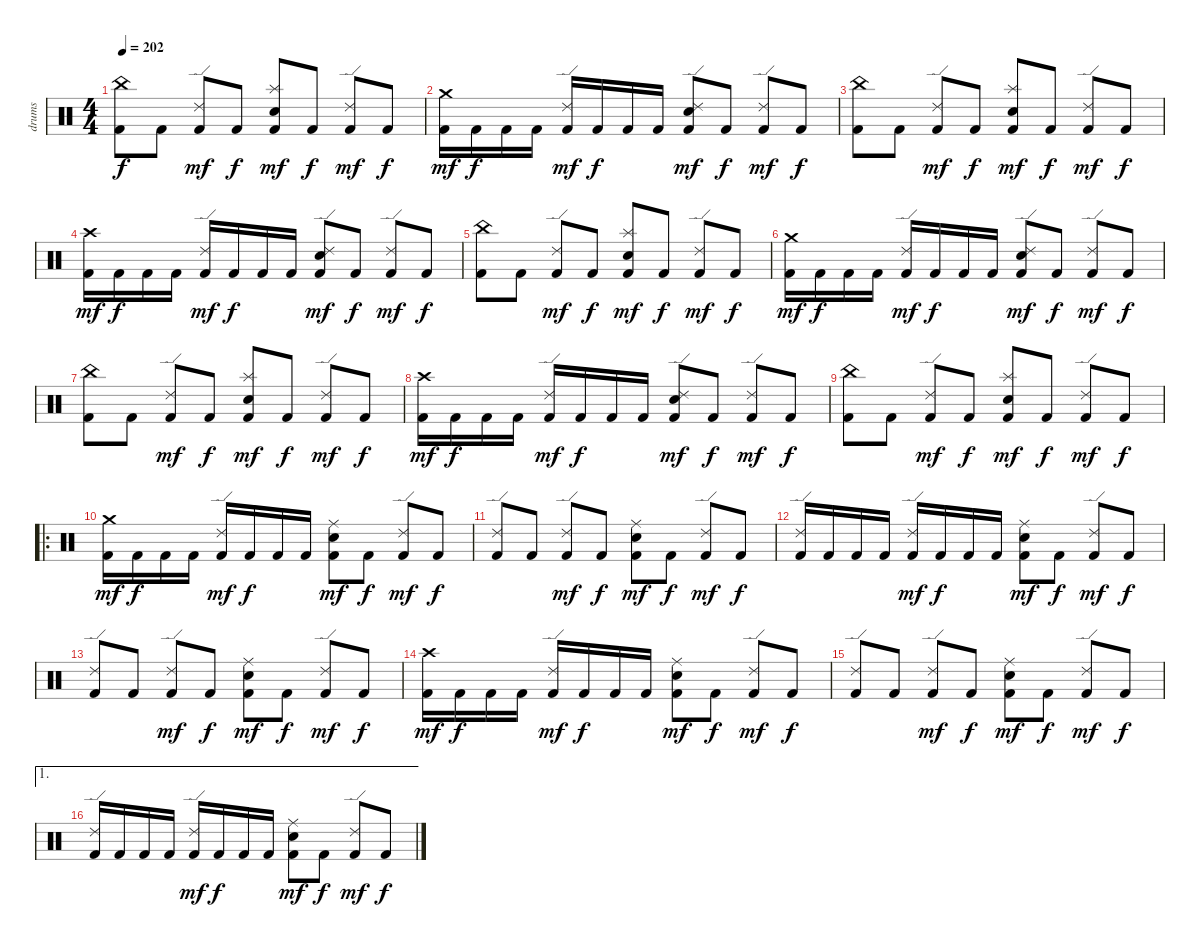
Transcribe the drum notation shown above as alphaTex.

\track ("drums" "drums") {instrument percussion}
\staff {score}
\articulation defaults
\ts (4 4)
\tempo 202
\clef neutral
\ks c
("China (hit)" "Kick (hit) 2").8{dy f} "Kick (hit) 2".8 ("Ride (edge) 2" "Kick (hit) 2").8{dy mf} "Kick (hit) 2".8{dy f} ("Splash (hit)" "Snare (hit) 2" "Kick (hit) 2").8{dy mf} "Kick (hit) 2".8{dy f} ("Ride (edge) 2" "Kick (hit) 2").8{dy mf} "Kick (hit) 2".8{dy f} |
("Crash medium (hit)" "Kick (hit) 2").16{dy mf} "Kick (hit) 2".16{dy f} "Kick (hit) 2".16 "Kick (hit) 2".16 ("Ride (edge) 2" "Kick (hit) 2").16{dy mf} "Kick (hit) 2".16{dy f} "Kick (hit) 2".16 "Kick (hit) 2".16 ("Ride (edge) 2" "Snare (hit) 2" "Kick (hit) 2").8{dy mf} "Kick (hit) 2".8{dy f} ("Ride (edge) 2" "Kick (hit) 2").8{dy mf} "Kick (hit) 2".8{dy f} |
("China (hit)" "Kick (hit) 2").8 "Kick (hit) 2".8 ("Ride (edge) 2" "Kick (hit) 2").8{dy mf} "Kick (hit) 2".8{dy f} ("Splash (hit)" "Snare (hit) 2" "Kick (hit) 2").8{dy mf} "Kick (hit) 2".8{dy f} ("Ride (edge) 2" "Kick (hit) 2").8{dy mf} "Kick (hit) 2".8{dy f} |
("Crash high (hit)" "Kick (hit) 2").16{dy mf} "Kick (hit) 2".16{dy f} "Kick (hit) 2".16 "Kick (hit) 2".16 ("Ride (edge) 2" "Kick (hit) 2").16{dy mf} "Kick (hit) 2".16{dy f} "Kick (hit) 2".16 "Kick (hit) 2".16 ("Ride (edge) 2" "Snare (hit) 2" "Kick (hit) 2").8{dy mf} "Kick (hit) 2".8{dy f} ("Ride (edge) 2" "Kick (hit) 2").8{dy mf} "Kick (hit) 2".8{dy f} |
("China (hit)" "Kick (hit) 2").8 "Kick (hit) 2".8 ("Ride (edge) 2" "Kick (hit) 2").8{dy mf} "Kick (hit) 2".8{dy f} ("Splash (hit)" "Snare (hit) 2" "Kick (hit) 2").8{dy mf} "Kick (hit) 2".8{dy f} ("Ride (edge) 2" "Kick (hit) 2").8{dy mf} "Kick (hit) 2".8{dy f} |
("Crash medium (hit)" "Kick (hit) 2").16{dy mf} "Kick (hit) 2".16{dy f} "Kick (hit) 2".16 "Kick (hit) 2".16 ("Ride (edge) 2" "Kick (hit) 2").16{dy mf} "Kick (hit) 2".16{dy f} "Kick (hit) 2".16 "Kick (hit) 2".16 ("Ride (edge) 2" "Snare (hit) 2" "Kick (hit) 2").8{dy mf} "Kick (hit) 2".8{dy f} ("Ride (edge) 2" "Kick (hit) 2").8{dy mf} "Kick (hit) 2".8{dy f} |
("China (hit)" "Kick (hit) 2").8 "Kick (hit) 2".8 ("Ride (edge) 2" "Kick (hit) 2").8{dy mf} "Kick (hit) 2".8{dy f} ("Splash (hit)" "Snare (hit) 2" "Kick (hit) 2").8{dy mf} "Kick (hit) 2".8{dy f} ("Ride (edge) 2" "Kick (hit) 2").8{dy mf} "Kick (hit) 2".8{dy f} |
("Crash high (hit)" "Kick (hit) 2").16{dy mf} "Kick (hit) 2".16{dy f} "Kick (hit) 2".16 "Kick (hit) 2".16 ("Ride (edge) 2" "Kick (hit) 2").16{dy mf} "Kick (hit) 2".16{dy f} "Kick (hit) 2".16 "Kick (hit) 2".16 ("Ride (edge) 2" "Snare (hit) 2" "Kick (hit) 2").8{dy mf} "Kick (hit) 2".8{dy f} ("Ride (edge) 2" "Kick (hit) 2").8{dy mf} "Kick (hit) 2".8{dy f} |
("China (hit)" "Kick (hit) 2").8 "Kick (hit) 2".8 ("Ride (edge) 2" "Kick (hit) 2").8{dy mf} "Kick (hit) 2".8{dy f} ("Splash (hit)" "Snare (hit) 2" "Kick (hit) 2").8{dy mf} "Kick (hit) 2".8{dy f} ("Ride (edge) 2" "Kick (hit) 2").8{dy mf} "Kick (hit) 2".8{dy f} |
\ro
("Crash medium (hit)" "Kick (hit) 2").16{dy mf} "Kick (hit) 2".16{dy f} "Kick (hit) 2".16 "Kick (hit) 2".16 ("Ride (edge) 2" "Kick (hit) 2").16{dy mf} "Kick (hit) 2".16{dy f} "Kick (hit) 2".16 "Kick (hit) 2".16 ("Ride (middle)" "Snare (hit) 2" "Kick (hit) 2").8{dy mf} "Kick (hit) 2".8{dy f} ("Ride (edge) 2" "Kick (hit) 2").8{dy mf} "Kick (hit) 2".8{dy f} |
("Ride (edge) 2" "Kick (hit) 2").8 "Kick (hit) 2".8 ("Ride (edge) 2" "Kick (hit) 2").8{dy mf} "Kick (hit) 2".8{dy f} ("Ride (middle)" "Snare (hit) 2" "Kick (hit) 2").8{dy mf} "Kick (hit) 2".8{dy f} ("Ride (edge) 2" "Kick (hit) 2").8{dy mf} "Kick (hit) 2".8{dy f} |
("Ride (edge) 2" "Kick (hit) 2").16 "Kick (hit) 2".16 "Kick (hit) 2".16 "Kick (hit) 2".16 ("Ride (edge) 2" "Kick (hit) 2").16{dy mf} "Kick (hit) 2".16{dy f} "Kick (hit) 2".16 "Kick (hit) 2".16 ("Ride (middle)" "Snare (hit) 2" "Kick (hit) 2").8{dy mf} "Kick (hit) 2".8{dy f} ("Ride (edge) 2" "Kick (hit) 2").8{dy mf} "Kick (hit) 2".8{dy f} |
("Ride (edge) 2" "Kick (hit) 2").8 "Kick (hit) 2".8 ("Ride (edge) 2" "Kick (hit) 2").8{dy mf} "Kick (hit) 2".8{dy f} ("Ride (middle)" "Snare (hit) 2" "Kick (hit) 2").8{dy mf} "Kick (hit) 2".8{dy f} ("Ride (edge) 2" "Kick (hit) 2").8{dy mf} "Kick (hit) 2".8{dy f} |
("Crash high (hit)" "Kick (hit) 2").16{dy mf} "Kick (hit) 2".16{dy f} "Kick (hit) 2".16 "Kick (hit) 2".16 ("Ride (edge) 2" "Kick (hit) 2").16{dy mf} "Kick (hit) 2".16{dy f} "Kick (hit) 2".16 "Kick (hit) 2".16 ("Ride (middle)" "Snare (hit) 2" "Kick (hit) 2").8{dy mf} "Kick (hit) 2".8{dy f} ("Ride (edge) 2" "Kick (hit) 2").8{dy mf} "Kick (hit) 2".8{dy f} |
("Ride (edge) 2" "Kick (hit) 2").8 "Kick (hit) 2".8 ("Ride (edge) 2" "Kick (hit) 2").8{dy mf} "Kick (hit) 2".8{dy f} ("Ride (middle)" "Snare (hit) 2" "Kick (hit) 2").8{dy mf} "Kick (hit) 2".8{dy f} ("Ride (edge) 2" "Kick (hit) 2").8{dy mf} "Kick (hit) 2".8{dy f} |
\ae 1
("Ride (edge) 2" "Kick (hit) 2").16 "Kick (hit) 2".16 "Kick (hit) 2".16 "Kick (hit) 2".16 ("Ride (edge) 2" "Kick (hit) 2").16{dy mf} "Kick (hit) 2".16{dy f} "Kick (hit) 2".16 "Kick (hit) 2".16 ("Ride (middle)" "Snare (hit) 2" "Kick (hit) 2").8{dy mf} "Kick (hit) 2".8{dy f} ("Ride (edge) 2" "Kick (hit) 2").8{dy mf} "Kick (hit) 2".8{dy f}
